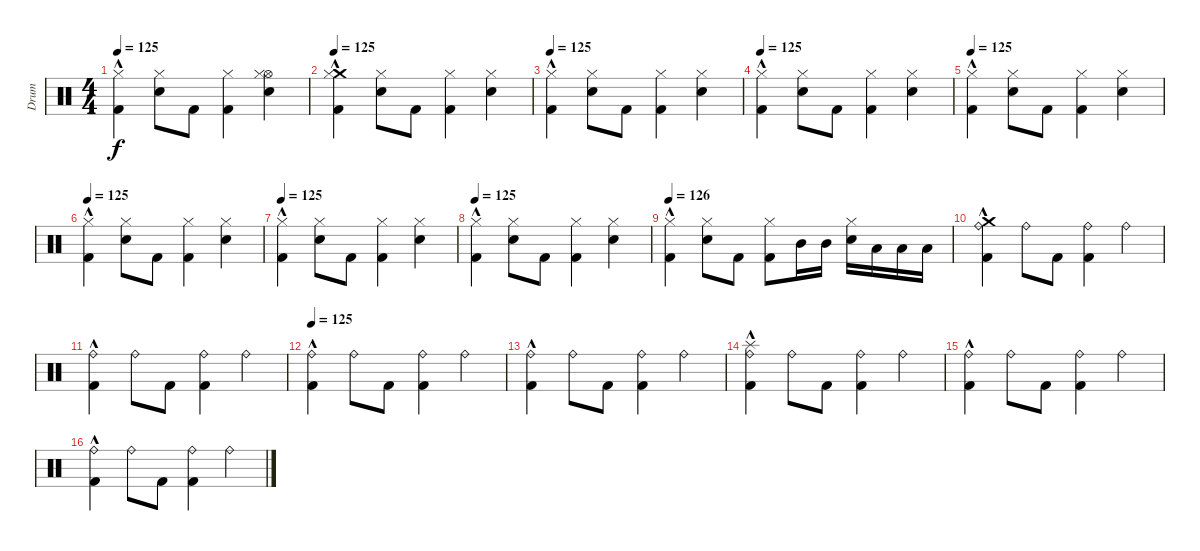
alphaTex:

\track ("Drum" "Drum") {instrument percussion}
\staff {score}
\articulation defaults
\ts (4 4)
\tempo 125
\clef neutral
\ks c
("Kick (hit) 2"{hac} "Hi-Hat (closed)").4{dy f} ("Electric Snare (hit)" "Hi-Hat (closed)").8 "Kick (hit) 2".8 ("Kick (hit) 2" "Hi-Hat (closed)").4 ("Hi-Hat (open)" "Electric Snare (hit)" "Hi-Hat (closed)").4 |
\tempo 125
("Crash medium (hit)" "Kick (hit) 2"{hac} "Hi-Hat (closed)").4 ("Electric Snare (hit)" "Hi-Hat (closed)").8 "Kick (hit) 2".8 ("Kick (hit) 2" "Hi-Hat (closed)").4 ("Electric Snare (hit)" "Hi-Hat (closed)").4 |
\tempo 125
("Kick (hit) 2"{hac} "Hi-Hat (closed)").4 ("Hi-Hat (closed)" "Electric Snare (hit)").8 "Kick (hit) 2".8 ("Hi-Hat (closed)" "Kick (hit) 2").4 ("Electric Snare (hit)" "Hi-Hat (closed)").4 |
\tempo 125
("Kick (hit) 2"{hac} "Hi-Hat (closed)").4 ("Hi-Hat (closed)" "Electric Snare (hit)").8 "Kick (hit) 2".8 ("Kick (hit) 2" "Hi-Hat (closed)").4 ("Hi-Hat (closed)" "Electric Snare (hit)").4 |
\tempo 125
("Kick (hit) 2"{hac} "Hi-Hat (closed)").4 ("Hi-Hat (closed)" "Electric Snare (hit)").8 "Kick (hit) 2".8 ("Hi-Hat (closed)" "Kick (hit) 2").4 ("Electric Snare (hit)" "Hi-Hat (closed)").4 |
\tempo 125
("Hi-Hat (closed)" "Kick (hit) 2"{hac}).4 ("Electric Snare (hit)" "Hi-Hat (closed)").8 "Kick (hit) 2".8 ("Hi-Hat (closed)" "Kick (hit) 2").4 ("Hi-Hat (closed)" "Electric Snare (hit)").4 |
\tempo 125
("Hi-Hat (closed)" "Kick (hit) 2"{hac}).4 ("Hi-Hat (closed)" "Electric Snare (hit)").8 "Kick (hit) 2".8 ("Hi-Hat (closed)" "Kick (hit) 2").4 ("Electric Snare (hit)" "Hi-Hat (closed)").4 |
\tempo 125
("Kick (hit) 2"{hac} "Hi-Hat (closed)").4 ("Hi-Hat (closed)" "Electric Snare (hit)").8 "Kick (hit) 2".8 ("Kick (hit) 2" "Hi-Hat (closed)").4 ("Electric Snare (hit)" "Hi-Hat (closed)").4 |
\tempo 126
("Kick (hit) 2"{hac} "Hi-Hat (closed)").4 ("Hi-Hat (closed)" "Electric Snare (hit)").8 "Kick (hit) 2".8 ("Kick (hit) 2" "Hi-Hat (closed)").8 "Mid Tom (hit)".16 "Mid Tom (hit)".16 ("Hi-Hat (closed)" "Electric Snare (hit)").16 "Low Floor Tom (hit)".16 "Low Floor Tom (hit)".16 "Low Floor Tom (hit)".16 |
("Crash medium (hit)" "Ride (bell)" "Kick (hit) 2"{hac}).4 "Ride (bell)".8 "Kick (hit) 2".8 ("Kick (hit) 2" "Ride (bell)").4 "Ride (bell)".4 |
("Ride (bell)" "Kick (hit) 2"{hac}).4 "Ride (bell)".8 "Kick (hit) 2".8 ("Ride (bell)" "Kick (hit) 2").4 "Ride (bell)".4 |
\tempo 125
("Ride (bell)" "Kick (hit) 2"{hac}).4 "Ride (bell)".8 "Kick (hit) 2".8 ("Ride (bell)" "Kick (hit) 2").4 "Ride (bell)".4 |
("Kick (hit) 2"{hac} "Ride (bell)").4 "Ride (bell)".8 "Kick (hit) 2".8 ("Ride (bell)" "Kick (hit) 2").4 "Ride (bell)".4 |
("Splash (hit)" "Kick (hit) 2"{hac} "Ride (bell)").4 "Ride (bell)".8 "Kick (hit) 2".8 ("Ride (bell)" "Kick (hit) 2").4 "Ride (bell)".4 |
("Kick (hit) 2"{hac} "Ride (bell)").4 "Ride (bell)".8 "Kick (hit) 2".8 ("Kick (hit) 2" "Ride (bell)").4 "Ride (bell)".4 |
("Kick (hit) 2"{hac} "Ride (bell)").4 "Ride (bell)".8 "Kick (hit) 2".8 ("Kick (hit) 2" "Ride (bell)").4 "Ride (bell)".4
